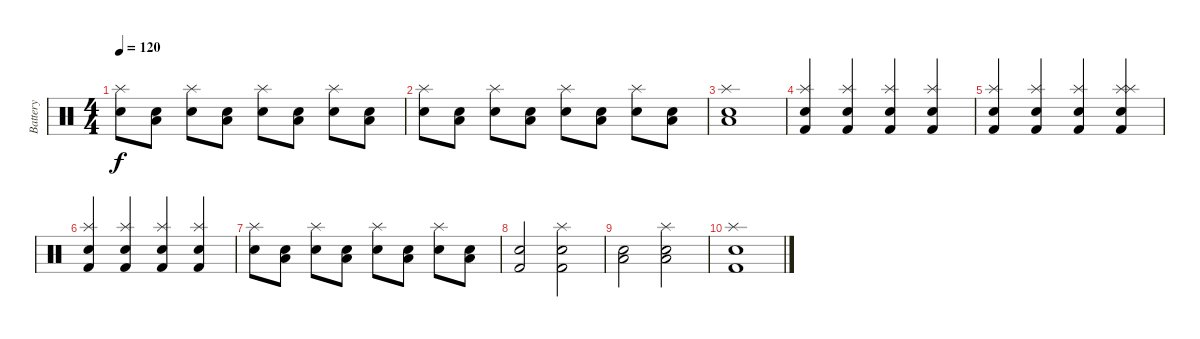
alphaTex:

\track ("Battery" "Battery") {instrument percussion}
\staff {score}
\articulation defaults
\ts (4 4)
\tempo 120
\clef neutral
\ks c
("Snare (hit) 2" "Splash (hit)").8{dy f} ("Snare (hit) 2" "Low Floor Tom (hit)").8 ("Snare (hit) 2" "Splash (hit)").8 ("Snare (hit) 2" "Low Floor Tom (hit)").8 ("Snare (hit) 2" "Splash (hit)").8 ("Snare (hit) 2" "Low Floor Tom (hit)").8 ("Snare (hit) 2" "Splash (hit)").8 ("Snare (hit) 2" "Low Floor Tom (hit)").8 |
("Electric Snare (hit)" "Splash (hit)").8 ("Electric Snare (hit)" "Low Tom (hit)").8 ("Electric Snare (hit)" "Splash (hit)").8 ("Electric Snare (hit)" "Low Tom (hit)").8 ("Electric Snare (hit)" "Splash (hit)").8 ("Electric Snare (hit)" "Low Tom (hit)").8 ("Electric Snare (hit)" "Splash (hit)").8 ("Electric Snare (hit)" "Low Tom (hit)").8 |
("Electric Snare (hit)" "Low Floor Tom (hit)" "Splash (hit)").1 |
("Snare (hit) 2" "Kick (hit) 2" "Splash (hit)").4 ("Snare (hit) 2" "Kick (hit) 2" "Splash (hit)").4 ("Snare (hit) 2" "Kick (hit) 2" "Splash (hit)").4 ("Snare (hit) 2" "Kick (hit) 2" "Splash (hit)").4 |
("Kick (hit) 2" "Snare (hit) 2" "Splash (hit)").4 ("Kick (hit) 2" "Snare (hit) 2" "Splash (hit)").4 ("Kick (hit) 2" "Snare (hit) 2" "Splash (hit)").4 ("Kick (hit) 2" "Snare (hit) 2" "Splash (hit)" "Splash (hit)").4 |
("Snare (hit) 2" "Kick (hit) 2" "Splash (hit)").4 ("Snare (hit) 2" "Kick (hit) 2" "Splash (hit)").4 ("Snare (hit) 2" "Kick (hit) 2" "Splash (hit)").4 ("Snare (hit) 2" "Kick (hit) 2" "Splash (hit)").4 |
("Snare (hit) 2" "Splash (hit)").8 ("Snare (hit) 2" "Low Floor Tom (hit)").8 ("Snare (hit) 2" "Splash (hit)").8 ("Snare (hit) 2" "Low Floor Tom (hit)").8 ("Snare (hit) 2" "Splash (hit)").8 ("Snare (hit) 2" "Low Floor Tom (hit)").8 ("Snare (hit) 2" "Splash (hit)").8 ("Snare (hit) 2" "Low Floor Tom (hit)").8 |
("Electric Snare (hit)" "Kick (hit) 2").2 ("Electric Snare (hit)" "Kick (hit) 2" "Splash (hit)").2 |
("Low Floor Tom (hit)" "Snare (hit) 2").2 ("Low Floor Tom (hit)" "Snare (hit) 2" "Splash (hit)").2 |
("Electric Snare (hit)" "Kick (hit) 2" "Splash (hit)").1
